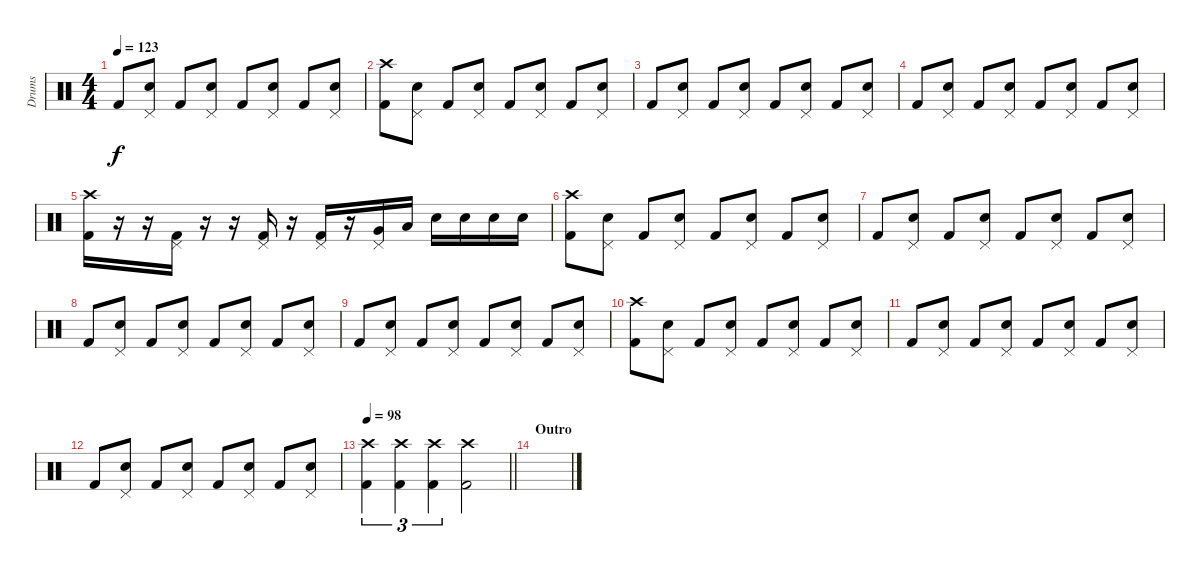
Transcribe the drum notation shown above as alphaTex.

\track ("Drums" "Drums") {instrument percussion}
\staff {score}
\articulation defaults
\ts (4 4)
\tempo 123
\clef neutral
\ks c "Kick (hit) 2".8{dy f}
("Pedal Hi-Hat (hit)" "Snare (hit) 2").8 "Kick (hit) 2".8 ("Pedal Hi-Hat (hit)" "Snare (hit) 2").8 "Kick (hit) 2".8 ("Pedal Hi-Hat (hit)" "Snare (hit) 2").8 "Kick (hit) 2".8 ("Pedal Hi-Hat (hit)" "Snare (hit) 2").8 |
("Crash high (hit)" "Kick (hit) 2").8 ("Pedal Hi-Hat (hit)" "Snare (hit) 2").8 "Kick (hit) 2".8 ("Pedal Hi-Hat (hit)" "Snare (hit) 2").8 "Kick (hit) 2".8 ("Pedal Hi-Hat (hit)" "Snare (hit) 2").8 "Kick (hit) 2".8 ("Pedal Hi-Hat (hit)" "Snare (hit) 2").8 |
"Kick (hit) 2".8 ("Pedal Hi-Hat (hit)" "Snare (hit) 2").8 "Kick (hit) 2".8 ("Pedal Hi-Hat (hit)" "Snare (hit) 2").8 "Kick (hit) 2".8 ("Pedal Hi-Hat (hit)" "Snare (hit) 2").8 "Kick (hit) 2".8 ("Pedal Hi-Hat (hit)" "Snare (hit) 2").8 |
"Kick (hit) 2".8 ("Pedal Hi-Hat (hit)" "Snare (hit) 2").8 "Kick (hit) 2".8 ("Pedal Hi-Hat (hit)" "Snare (hit) 2").8 "Kick (hit) 2".8 ("Pedal Hi-Hat (hit)" "Snare (hit) 2").8 "Kick (hit) 2".8 ("Pedal Hi-Hat (hit)" "Snare (hit) 2").8 |
("Crash high (hit)" "Kick (hit) 2").16 r.16 r.16 ("Pedal Hi-Hat (hit)" "Kick (hit) 2").16 r.16 r.16 ("Pedal Hi-Hat (hit)" "Kick (hit) 2").16 r.16 ("Pedal Hi-Hat (hit)" "Kick (hit) 2").16 r.16 ("Pedal Hi-Hat (hit)" "Very Low Tom (hit)").16 "Low Floor Tom (hit)".16 "Snare (hit) 2".16 "Snare (hit) 2".16 "Snare (hit) 2".16 "Snare (hit) 2".16 |
("Crash high (hit)" "Kick (hit) 2").8 ("Pedal Hi-Hat (hit)" "Snare (hit) 2").8 "Kick (hit) 2".8 ("Pedal Hi-Hat (hit)" "Snare (hit) 2").8 "Kick (hit) 2".8 ("Pedal Hi-Hat (hit)" "Snare (hit) 2").8 "Kick (hit) 2".8 ("Pedal Hi-Hat (hit)" "Snare (hit) 2").8 |
"Kick (hit) 2".8 ("Pedal Hi-Hat (hit)" "Snare (hit) 2").8 "Kick (hit) 2".8 ("Pedal Hi-Hat (hit)" "Snare (hit) 2").8 "Kick (hit) 2".8 ("Pedal Hi-Hat (hit)" "Snare (hit) 2").8 "Kick (hit) 2".8 ("Pedal Hi-Hat (hit)" "Snare (hit) 2").8 |
"Kick (hit) 2".8 ("Pedal Hi-Hat (hit)" "Snare (hit) 2").8 "Kick (hit) 2".8 ("Pedal Hi-Hat (hit)" "Snare (hit) 2").8 "Kick (hit) 2".8 ("Pedal Hi-Hat (hit)" "Snare (hit) 2").8 "Kick (hit) 2".8 ("Pedal Hi-Hat (hit)" "Snare (hit) 2").8 |
"Kick (hit) 2".8 ("Pedal Hi-Hat (hit)" "Snare (hit) 2").8 "Kick (hit) 2".8 ("Pedal Hi-Hat (hit)" "Snare (hit) 2").8 "Kick (hit) 2".8 ("Pedal Hi-Hat (hit)" "Snare (hit) 2").8 "Kick (hit) 2".8 ("Pedal Hi-Hat (hit)" "Snare (hit) 2").8 |
("Crash high (hit)" "Kick (hit) 2").8 ("Pedal Hi-Hat (hit)" "Snare (hit) 2").8 "Kick (hit) 2".8 ("Pedal Hi-Hat (hit)" "Snare (hit) 2").8 "Kick (hit) 2".8 ("Pedal Hi-Hat (hit)" "Snare (hit) 2").8 "Kick (hit) 2".8 ("Pedal Hi-Hat (hit)" "Snare (hit) 2").8 |
"Kick (hit) 2".8 ("Pedal Hi-Hat (hit)" "Snare (hit) 2").8 "Kick (hit) 2".8 ("Pedal Hi-Hat (hit)" "Snare (hit) 2").8 "Kick (hit) 2".8 ("Pedal Hi-Hat (hit)" "Snare (hit) 2").8 "Kick (hit) 2".8 ("Pedal Hi-Hat (hit)" "Snare (hit) 2").8 |
"Kick (hit) 2".8 ("Pedal Hi-Hat (hit)" "Snare (hit) 2").8 "Kick (hit) 2".8 ("Pedal Hi-Hat (hit)" "Snare (hit) 2").8 "Kick (hit) 2".8 ("Pedal Hi-Hat (hit)" "Snare (hit) 2").8 "Kick (hit) 2".8 ("Pedal Hi-Hat (hit)" "Snare (hit) 2").8 |
\tempo 98
\barLineRight lightlight
("Crash high (hit)" "Kick (hit) 2").4{tu (3 2)} ("Crash high (hit)" "Kick (hit) 2").4{tu (3 2)} ("Crash high (hit)" "Kick (hit) 2").4{tu (3 2)} ("Crash high (hit)" "Kick (hit) 2").2 |
\section ("" "Outro")
